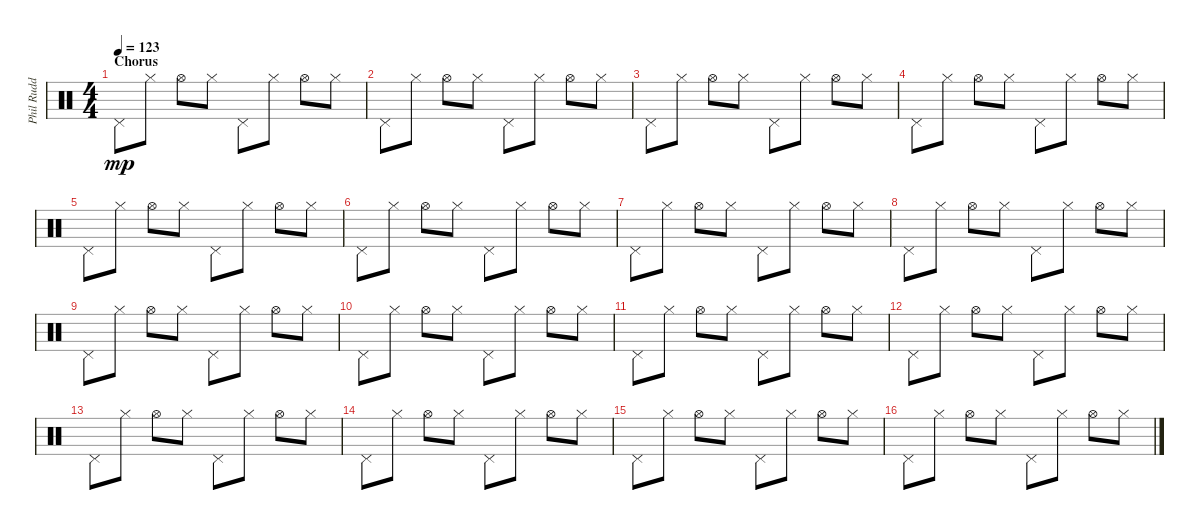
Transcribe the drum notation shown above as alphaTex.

\track ("Phil Rudd (HiHat)" "Phil Rudd ") {instrument percussion}
\staff {score}
\articulation defaults
\ts (4 4)
\section ("" "Chorus")
\tempo 123
\clef neutral
\ks c "Pedal Hi-Hat (hit)".8{dy mp} "Hi-Hat (closed)".8 "Hi-Hat (open)".8 "Hi-Hat (closed)".8 "Pedal Hi-Hat (hit)".8 "Hi-Hat (closed)".8 "Hi-Hat (open)".8 "Hi-Hat (closed)".8
|
"Pedal Hi-Hat (hit)".8 "Hi-Hat (closed)".8 "Hi-Hat (open)".8 "Hi-Hat (closed)".8 "Pedal Hi-Hat (hit)".8 "Hi-Hat (closed)".8 "Hi-Hat (open)".8 "Hi-Hat (closed)".8 |
"Pedal Hi-Hat (hit)".8 "Hi-Hat (closed)".8 "Hi-Hat (open)".8 "Hi-Hat (closed)".8 "Pedal Hi-Hat (hit)".8 "Hi-Hat (closed)".8 "Hi-Hat (open)".8 "Hi-Hat (closed)".8 |
"Pedal Hi-Hat (hit)".8 "Hi-Hat (closed)".8 "Hi-Hat (open)".8 "Hi-Hat (closed)".8 "Pedal Hi-Hat (hit)".8 "Hi-Hat (closed)".8 "Hi-Hat (open)".8 "Hi-Hat (closed)".8 |
"Pedal Hi-Hat (hit)".8 "Hi-Hat (closed)".8 "Hi-Hat (open)".8 "Hi-Hat (closed)".8 "Pedal Hi-Hat (hit)".8 "Hi-Hat (closed)".8 "Hi-Hat (open)".8 "Hi-Hat (closed)".8 |
"Pedal Hi-Hat (hit)".8 "Hi-Hat (closed)".8 "Hi-Hat (open)".8 "Hi-Hat (closed)".8 "Pedal Hi-Hat (hit)".8 "Hi-Hat (closed)".8 "Hi-Hat (open)".8 "Hi-Hat (closed)".8 |
"Pedal Hi-Hat (hit)".8 "Hi-Hat (closed)".8 "Hi-Hat (open)".8 "Hi-Hat (closed)".8 "Pedal Hi-Hat (hit)".8 "Hi-Hat (closed)".8 "Hi-Hat (open)".8 "Hi-Hat (closed)".8 |
"Pedal Hi-Hat (hit)".8 "Hi-Hat (closed)".8 "Hi-Hat (open)".8 "Hi-Hat (closed)".8 "Pedal Hi-Hat (hit)".8 "Hi-Hat (closed)".8 "Hi-Hat (open)".8 "Hi-Hat (closed)".8 |
"Pedal Hi-Hat (hit)".8 "Hi-Hat (closed)".8 "Hi-Hat (open)".8 "Hi-Hat (closed)".8 "Pedal Hi-Hat (hit)".8 "Hi-Hat (closed)".8 "Hi-Hat (open)".8 "Hi-Hat (closed)".8 |
"Pedal Hi-Hat (hit)".8 "Hi-Hat (closed)".8 "Hi-Hat (open)".8 "Hi-Hat (closed)".8 "Pedal Hi-Hat (hit)".8 "Hi-Hat (closed)".8 "Hi-Hat (open)".8 "Hi-Hat (closed)".8 |
"Pedal Hi-Hat (hit)".8 "Hi-Hat (closed)".8 "Hi-Hat (open)".8 "Hi-Hat (closed)".8 "Pedal Hi-Hat (hit)".8 "Hi-Hat (closed)".8 "Hi-Hat (open)".8 "Hi-Hat (closed)".8 |
"Pedal Hi-Hat (hit)".8 "Hi-Hat (closed)".8 "Hi-Hat (open)".8 "Hi-Hat (closed)".8 "Pedal Hi-Hat (hit)".8 "Hi-Hat (closed)".8 "Hi-Hat (open)".8 "Hi-Hat (closed)".8 |
"Pedal Hi-Hat (hit)".8 "Hi-Hat (closed)".8 "Hi-Hat (open)".8 "Hi-Hat (closed)".8 "Pedal Hi-Hat (hit)".8 "Hi-Hat (closed)".8 "Hi-Hat (open)".8 "Hi-Hat (closed)".8 |
"Pedal Hi-Hat (hit)".8 "Hi-Hat (closed)".8 "Hi-Hat (open)".8 "Hi-Hat (closed)".8 "Pedal Hi-Hat (hit)".8 "Hi-Hat (closed)".8 "Hi-Hat (open)".8 "Hi-Hat (closed)".8 |
"Pedal Hi-Hat (hit)".8 "Hi-Hat (closed)".8 "Hi-Hat (open)".8 "Hi-Hat (closed)".8 "Pedal Hi-Hat (hit)".8 "Hi-Hat (closed)".8 "Hi-Hat (open)".8 "Hi-Hat (closed)".8 |
"Pedal Hi-Hat (hit)".8 "Hi-Hat (closed)".8 "Hi-Hat (open)".8 "Hi-Hat (closed)".8 "Pedal Hi-Hat (hit)".8 "Hi-Hat (closed)".8 "Hi-Hat (open)".8 "Hi-Hat (closed)".8
